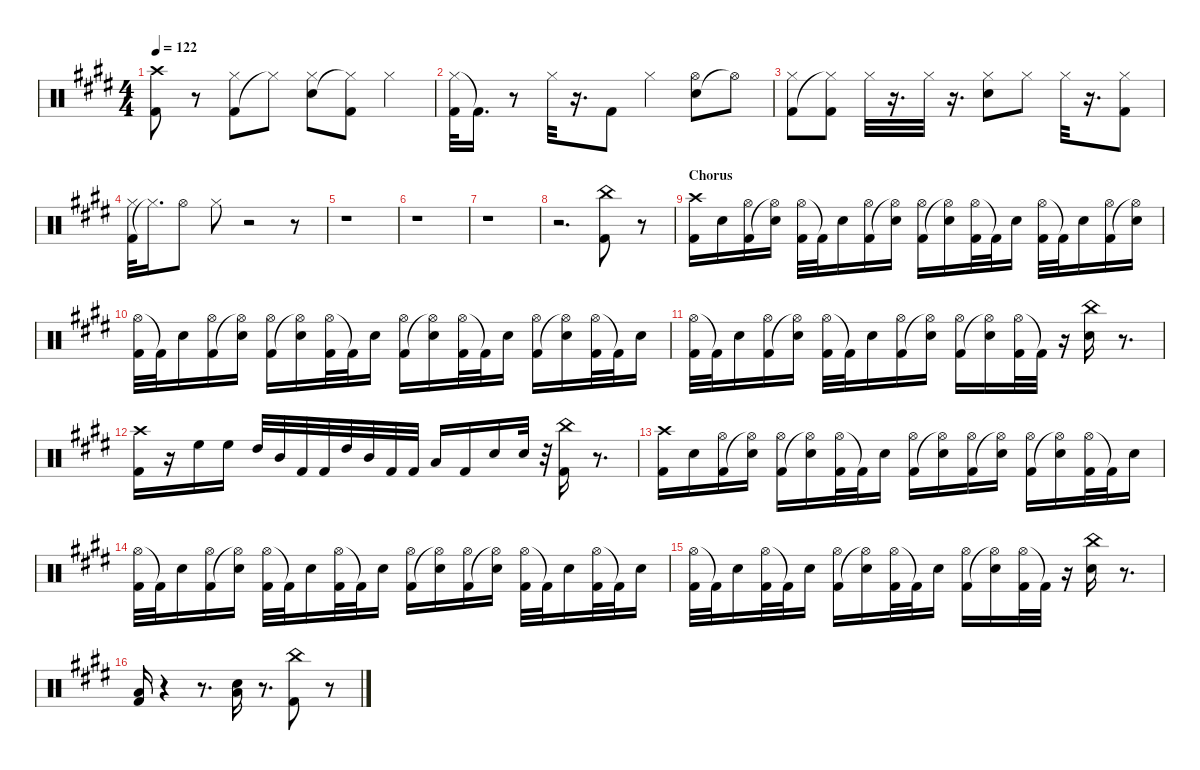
\defaultSystemsLayout 4
\hideDynamics
\bracketExtendMode nobrackets
\otherSystemsTrackNameOrientation horizontal
\track ("Shinya" "  ") {instrument percussion}
\staff {score}
\articulation defaults
\ts (4 4)
\tempo 122
\clef neutral
\ks c#minor
("Kick (hit) 2"{acc forcenatural} "Crash high (hit)"{acc #}).8{dy fff} r.8 ("Kick (hit) 2"{acc forcenatural} "Hi-Hat (closed)"{acc #}).8 "Hi-Hat (closed)"{t acc #}.8 ("Snare (hit) 2"{acc forcenatural} "Hi-Hat (closed)"{acc #}).8 ("Hi-Hat (closed)"{t acc #} "Kick (hit) 2"{acc forcenatural}).8 "Hi-Hat (closed)"{acc #}.4 |
("Hi-Hat (closed)"{acc #} "Kick (hit) 2"{acc forcenatural}).32 "Kick (hit) 2"{t acc forcenatural}.16{d} r.8 "Hi-Hat (closed)"{acc #}.32 r.16{d} "Kick (hit) 2"{acc forcenatural}.8 "Hi-Hat (closed)"{acc #}.4 ("Snare (hit) 2"{acc forcenatural} "Hi-Hat (open)"{acc #}).8 "Hi-Hat (open)"{t acc #}.8 |
("Kick (hit) 2"{acc forcenatural} "Hi-Hat (closed)"{acc #}).8 ("Hi-Hat (closed)"{t acc #} "Kick (hit) 2"{acc forcenatural}).8 "Hi-Hat (closed)"{acc #}.32 r.16{d} "Hi-Hat (closed)"{acc #}.32 r.16{d} ("Snare (hit) 2"{acc forcenatural} "Hi-Hat (closed)"{acc #}).8 "Hi-Hat (closed)"{acc #}.8 "Hi-Hat (closed)"{acc #}.32 r.16{d} ("Kick (hit) 2"{acc forcenatural} "Hi-Hat (closed)"{acc #}).8 |
("Kick (hit) 2"{acc forcenatural} "Hi-Hat (closed)"{acc #}).32 "Hi-Hat (closed)"{t acc #}.16{d} "Hi-Hat (open)"{acc #}.8 "Hi-Hat (closed)"{acc #}.8 r.2 r.8 |
r.1 |
r.1 |
r.1 |
r.2{d} ("Kick (hit) 2"{acc forcenatural} "China (hit)"{acc forcenatural}).8 r.8 |
\section ("" "Chorus")
("Kick (hit) 2"{acc forcenatural} "Crash high (hit)"{acc #}).16 "Snare (hit) 2"{acc forcenatural}.16 ("Kick (hit) 2"{acc forcenatural} "Hi-Hat (open)"{acc #}).16 ("Hi-Hat (open)"{t acc #} "Snare (hit) 2"{acc forcenatural}).16 ("Hi-Hat (open)"{acc #} "Kick (hit) 2"{acc forcenatural}).32 "Kick (hit) 2"{t acc forcenatural}.32 "Snare (hit) 2"{acc forcenatural}.16 ("Kick (hit) 2"{acc forcenatural} "Hi-Hat (open)"{acc #}).16 ("Hi-Hat (open)"{t acc #} "Snare (hit) 2"{acc forcenatural}).16 ("Kick (hit) 2"{acc forcenatural} "Hi-Hat (open)"{acc #}).16 ("Hi-Hat (open)"{t acc #} "Snare (hit) 2"{acc forcenatural}).16 ("Hi-Hat (open)"{acc #} "Kick (hit) 2"{acc forcenatural}).32 "Kick (hit) 2"{t acc forcenatural}.32 "Snare (hit) 2"{acc forcenatural}.16 ("Hi-Hat (open)"{acc #} "Kick (hit) 2"{acc forcenatural}).32 "Kick (hit) 2"{t acc forcenatural}.32 "Snare (hit) 2"{acc forcenatural}.16 ("Kick (hit) 2"{acc forcenatural} "Hi-Hat (open)"{acc #}).16 ("Hi-Hat (open)"{t acc #} "Snare (hit) 2"{acc forcenatural}).16 |
("Hi-Hat (open)"{acc #} "Kick (hit) 2"{acc forcenatural}).32 "Kick (hit) 2"{t acc forcenatural}.32 "Snare (hit) 2"{acc forcenatural}.16 ("Kick (hit) 2"{acc forcenatural} "Hi-Hat (open)"{acc #}).16 ("Hi-Hat (open)"{t acc #} "Snare (hit) 2"{acc forcenatural}).16 ("Kick (hit) 2"{acc forcenatural} "Hi-Hat (open)"{acc #}).16 ("Hi-Hat (open)"{t acc #} "Snare (hit) 2"{acc forcenatural}).16 ("Hi-Hat (open)"{acc #} "Kick (hit) 2"{acc forcenatural}).32 "Kick (hit) 2"{t acc forcenatural}.32 "Snare (hit) 2"{acc forcenatural}.16 ("Kick (hit) 2"{acc forcenatural} "Hi-Hat (open)"{acc #}).16 ("Hi-Hat (open)"{t acc #} "Snare (hit) 2"{acc forcenatural}).16 ("Hi-Hat (open)"{acc #} "Kick (hit) 2"{acc forcenatural}).32 "Kick (hit) 2"{t acc forcenatural}.32 "Snare (hit) 2"{acc forcenatural}.16 ("Kick (hit) 2"{acc forcenatural} "Hi-Hat (open)"{acc #}).16 ("Hi-Hat (open)"{t acc #} "Snare (hit) 2"{acc forcenatural}).16 ("Hi-Hat (open)"{acc #} "Kick (hit) 2"{acc forcenatural}).32 "Kick (hit) 2"{t acc forcenatural}.32 "Snare (hit) 2"{acc forcenatural}.16 |
("Hi-Hat (open)"{acc #} "Kick (hit) 2"{acc forcenatural}).32 "Kick (hit) 2"{t acc forcenatural}.32 "Snare (hit) 2"{acc forcenatural}.16 ("Kick (hit) 2"{acc forcenatural} "Hi-Hat (open)"{acc #}).16 ("Hi-Hat (open)"{t acc #} "Snare (hit) 2"{acc forcenatural}).16 ("Hi-Hat (open)"{acc #} "Kick (hit) 2"{acc forcenatural}).32 "Kick (hit) 2"{t acc forcenatural}.32 "Snare (hit) 2"{acc forcenatural}.16 ("Kick (hit) 2"{acc forcenatural} "Hi-Hat (open)"{acc #}).16 ("Hi-Hat (open)"{t acc #} "Snare (hit) 2"{acc forcenatural}).16 ("Kick (hit) 2"{acc forcenatural} "Hi-Hat (open)"{acc #}).16 ("Hi-Hat (open)"{t acc #} "Snare (hit) 2"{acc forcenatural}).16 ("Hi-Hat (open)"{acc #} "Kick (hit) 2"{acc forcenatural}).32 "Kick (hit) 2"{t acc forcenatural}.32 r.16 ("Snare (hit) 2"{acc forcenatural} "China (hit)"{acc forcenatural}).16 r.8{d} |
("Kick (hit) 2"{acc forcenatural} "Crash high (hit)"{acc #}).16 r.16 "High Floor Tom (hit)"{acc forcenatural}.16 "High Floor Tom (hit)"{acc forcenatural}.16 "High Tom (hit)"{acc forcenatural}.32 "Mid Tom (hit)"{acc forcenatural}.32 "Kick (hit) 2"{acc forcenatural}.32 "Kick (hit) 2"{acc forcenatural}.32 "High Tom (hit)"{acc forcenatural}.32 "Mid Tom (hit)"{acc forcenatural}.32 "Kick (hit) 2"{acc forcenatural}.32 "Kick (hit) 2"{acc forcenatural}.32 "Low Tom (hit)"{acc forcenatural}.16 "Kick (hit) 2"{acc forcenatural}.16 "Snare (hit) 2"{acc forcenatural}.16 "Snare (hit) 2"{acc forcenatural}.32 r.32 ("Kick (hit) 2"{acc forcenatural} "China (hit)"{acc forcenatural}).16 r.8{d} |
("Kick (hit) 2"{acc forcenatural} "Crash high (hit)"{acc #}).16 "Snare (hit) 2"{acc forcenatural}.16 ("Kick (hit) 2"{acc forcenatural} "Hi-Hat (open)"{acc #}).16 ("Hi-Hat (open)"{t acc #} "Snare (hit) 2"{acc forcenatural}).16 ("Kick (hit) 2"{acc forcenatural} "Hi-Hat (open)"{acc #}).16 ("Hi-Hat (open)"{t acc #} "Snare (hit) 2"{acc forcenatural}).16 ("Hi-Hat (open)"{acc #} "Kick (hit) 2"{acc forcenatural}).32 "Kick (hit) 2"{t acc forcenatural}.32 "Snare (hit) 2"{acc forcenatural}.16 ("Kick (hit) 2"{acc forcenatural} "Hi-Hat (open)"{acc #}).16 ("Hi-Hat (open)"{t acc #} "Snare (hit) 2"{acc forcenatural}).16 ("Kick (hit) 2"{acc forcenatural} "Hi-Hat (open)"{acc #}).16 ("Hi-Hat (open)"{t acc #} "Snare (hit) 2"{acc forcenatural}).16 ("Kick (hit) 2"{acc forcenatural} "Hi-Hat (open)"{acc #}).16 ("Hi-Hat (open)"{t acc #} "Snare (hit) 2"{acc forcenatural}).16 ("Hi-Hat (open)"{acc #} "Kick (hit) 2"{acc forcenatural}).32 "Kick (hit) 2"{t acc forcenatural}.32 "Snare (hit) 2"{acc forcenatural}.16 |
("Hi-Hat (open)"{acc #} "Kick (hit) 2"{acc forcenatural}).32 "Kick (hit) 2"{t acc forcenatural}.32 "Snare (hit) 2"{acc forcenatural}.16 ("Kick (hit) 2"{acc forcenatural} "Hi-Hat (open)"{acc #}).16 ("Hi-Hat (open)"{t acc #} "Snare (hit) 2"{acc forcenatural}).16 ("Hi-Hat (open)"{acc #} "Kick (hit) 2"{acc forcenatural}).32 "Kick (hit) 2"{t acc forcenatural}.32 "Snare (hit) 2"{acc forcenatural}.16 ("Hi-Hat (open)"{acc #} "Kick (hit) 2"{acc forcenatural}).32 "Kick (hit) 2"{t acc forcenatural}.32 "Snare (hit) 2"{acc forcenatural}.16 ("Kick (hit) 2"{acc forcenatural} "Hi-Hat (open)"{acc #}).16 ("Hi-Hat (open)"{t acc #} "Snare (hit) 2"{acc forcenatural}).16 ("Kick (hit) 2"{acc forcenatural} "Hi-Hat (open)"{acc #}).16 ("Hi-Hat (open)"{t acc #} "Snare (hit) 2"{acc forcenatural}).16 ("Hi-Hat (open)"{acc #} "Kick (hit) 2"{acc forcenatural}).32 "Kick (hit) 2"{t acc forcenatural}.32 "Snare (hit) 2"{acc forcenatural}.16 ("Hi-Hat (open)"{acc #} "Kick (hit) 2"{acc forcenatural}).32 "Kick (hit) 2"{t acc forcenatural}.32 "Snare (hit) 2"{acc forcenatural}.16 |
("Hi-Hat (open)"{acc #} "Kick (hit) 2"{acc forcenatural}).32 "Kick (hit) 2"{t acc forcenatural}.32 "Snare (hit) 2"{acc forcenatural}.16 ("Hi-Hat (open)"{acc #} "Kick (hit) 2"{acc forcenatural}).32 "Kick (hit) 2"{t acc forcenatural}.32 "Snare (hit) 2"{acc forcenatural}.16 ("Kick (hit) 2"{acc forcenatural} "Hi-Hat (open)"{acc #}).16 ("Hi-Hat (open)"{t acc #} "Snare (hit) 2"{acc forcenatural}).16 ("Hi-Hat (open)"{acc #} "Kick (hit) 2"{acc forcenatural}).32 "Kick (hit) 2"{t acc forcenatural}.32 "Snare (hit) 2"{acc forcenatural}.16 ("Kick (hit) 2"{acc forcenatural} "Hi-Hat (open)"{acc #}).16 ("Hi-Hat (open)"{t acc #} "Snare (hit) 2"{acc forcenatural}).16 ("Hi-Hat (open)"{acc #} "Kick (hit) 2"{acc forcenatural}).32 "Kick (hit) 2"{t acc forcenatural}.32 r.16 ("Snare (hit) 2"{acc forcenatural} "China (hit)"{acc forcenatural}).16 r.8{d} |
("Kick (hit) 2"{acc forcenatural} "Low Tom (hit)"{acc forcenatural}).16 r.4 r.8{d} ("Snare (hit) 2"{acc forcenatural} "Low Tom (hit)"{acc forcenatural}).16 r.8{d} ("Kick (hit) 2"{acc forcenatural} "China (hit)"{acc forcenatural}).8 r.8
